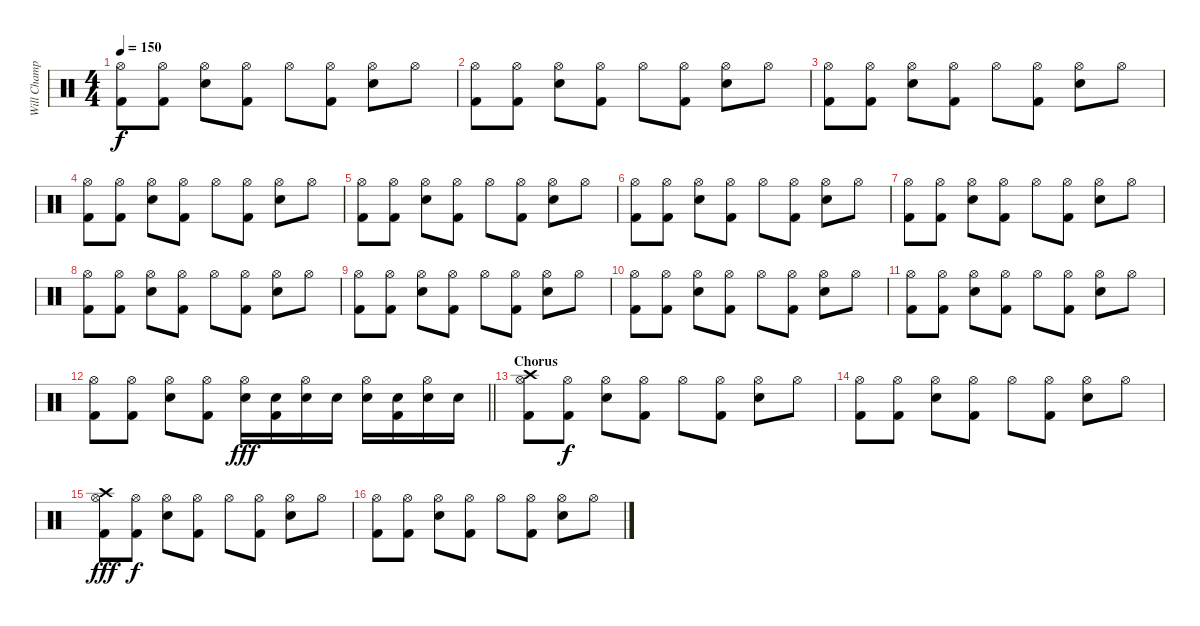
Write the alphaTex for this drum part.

\track ("Will Champion" "Will Champ") {instrument percussion}
\staff {score}
\articulation defaults
\ts (4 4)
\tempo 150
\clef neutral
\ks c
("Kick (hit) 2" "Hi-Hat (open)").8{dy f} ("Kick (hit) 2" "Hi-Hat (open)").8 ("Electric Snare (hit)" "Hi-Hat (open)").8 ("Kick (hit) 2" "Hi-Hat (open)").8 "Hi-Hat (open)".8 ("Kick (hit) 2" "Hi-Hat (open)").8 ("Electric Snare (hit)" "Hi-Hat (open)").8 "Hi-Hat (open)".8 |
("Kick (hit) 2" "Hi-Hat (open)").8 ("Kick (hit) 2" "Hi-Hat (open)").8 ("Electric Snare (hit)" "Hi-Hat (open)").8 ("Kick (hit) 2" "Hi-Hat (open)").8 "Hi-Hat (open)".8 ("Kick (hit) 2" "Hi-Hat (open)").8 ("Electric Snare (hit)" "Hi-Hat (open)").8 "Hi-Hat (open)".8 |
("Kick (hit) 2" "Hi-Hat (open)").8 ("Kick (hit) 2" "Hi-Hat (open)").8 ("Electric Snare (hit)" "Hi-Hat (open)").8 ("Kick (hit) 2" "Hi-Hat (open)").8 "Hi-Hat (open)".8 ("Kick (hit) 2" "Hi-Hat (open)").8 ("Electric Snare (hit)" "Hi-Hat (open)").8 "Hi-Hat (open)".8 |
("Kick (hit) 2" "Hi-Hat (open)").8 ("Kick (hit) 2" "Hi-Hat (open)").8 ("Electric Snare (hit)" "Hi-Hat (open)").8 ("Kick (hit) 2" "Hi-Hat (open)").8 "Hi-Hat (open)".8 ("Kick (hit) 2" "Hi-Hat (open)").8 ("Electric Snare (hit)" "Hi-Hat (open)").8 "Hi-Hat (open)".8 |
("Kick (hit) 2" "Hi-Hat (open)").8 ("Kick (hit) 2" "Hi-Hat (open)").8 ("Electric Snare (hit)" "Hi-Hat (open)").8 ("Kick (hit) 2" "Hi-Hat (open)").8 "Hi-Hat (open)".8 ("Kick (hit) 2" "Hi-Hat (open)").8 ("Electric Snare (hit)" "Hi-Hat (open)").8 "Hi-Hat (open)".8 |
("Kick (hit) 2" "Hi-Hat (open)").8 ("Kick (hit) 2" "Hi-Hat (open)").8 ("Electric Snare (hit)" "Hi-Hat (open)").8 ("Kick (hit) 2" "Hi-Hat (open)").8 "Hi-Hat (open)".8 ("Kick (hit) 2" "Hi-Hat (open)").8 ("Electric Snare (hit)" "Hi-Hat (open)").8 "Hi-Hat (open)".8 |
("Kick (hit) 2" "Hi-Hat (open)").8 ("Kick (hit) 2" "Hi-Hat (open)").8 ("Electric Snare (hit)" "Hi-Hat (open)").8 ("Kick (hit) 2" "Hi-Hat (open)").8 "Hi-Hat (open)".8 ("Kick (hit) 2" "Hi-Hat (open)").8 ("Electric Snare (hit)" "Hi-Hat (open)").8 "Hi-Hat (open)".8 |
("Kick (hit) 2" "Hi-Hat (open)").8 ("Kick (hit) 2" "Hi-Hat (open)").8 ("Electric Snare (hit)" "Hi-Hat (open)").8 ("Kick (hit) 2" "Hi-Hat (open)").8 "Hi-Hat (open)".8 ("Kick (hit) 2" "Hi-Hat (open)").8 ("Electric Snare (hit)" "Hi-Hat (open)").8 "Hi-Hat (open)".8 |
("Kick (hit) 2" "Hi-Hat (open)").8 ("Kick (hit) 2" "Hi-Hat (open)").8 ("Electric Snare (hit)" "Hi-Hat (open)").8 ("Kick (hit) 2" "Hi-Hat (open)").8 "Hi-Hat (open)".8 ("Kick (hit) 2" "Hi-Hat (open)").8 ("Electric Snare (hit)" "Hi-Hat (open)").8 "Hi-Hat (open)".8 |
("Kick (hit) 2" "Hi-Hat (open)").8 ("Kick (hit) 2" "Hi-Hat (open)").8 ("Electric Snare (hit)" "Hi-Hat (open)").8 ("Kick (hit) 2" "Hi-Hat (open)").8 "Hi-Hat (open)".8 ("Kick (hit) 2" "Hi-Hat (open)").8 ("Electric Snare (hit)" "Hi-Hat (open)").8 "Hi-Hat (open)".8 |
("Kick (hit) 2" "Hi-Hat (open)").8 ("Kick (hit) 2" "Hi-Hat (open)").8 ("Electric Snare (hit)" "Hi-Hat (open)").8 ("Kick (hit) 2" "Hi-Hat (open)").8 "Hi-Hat (open)".8 ("Kick (hit) 2" "Hi-Hat (open)").8 ("Electric Snare (hit)" "Hi-Hat (open)").8 "Hi-Hat (open)".8 |
\barLineRight lightlight
("Kick (hit) 2" "Hi-Hat (open)").8 ("Kick (hit) 2" "Hi-Hat (open)").8 ("Electric Snare (hit)" "Hi-Hat (open)").8 ("Kick (hit) 2" "Hi-Hat (open)").8 ("Hi-Hat (open)" "Electric Snare (hit)").16{dy fff} ("Kick (hit) 2" "Electric Snare (hit)").16 ("Hi-Hat (open)" "Electric Snare (hit)").16 "Electric Snare (hit)".16 ("Hi-Hat (open)" "Electric Snare (hit)").16 ("Kick (hit) 2" "Electric Snare (hit)").16 ("Hi-Hat (open)" "Electric Snare (hit)").16 "Electric Snare (hit)".16 |
\section ("" "Chorus")
("Kick (hit) 2" "Hi-Hat (open)" "Crash high (hit)").8 ("Kick (hit) 2" "Hi-Hat (open)").8{dy f} ("Electric Snare (hit)" "Hi-Hat (open)").8 ("Kick (hit) 2" "Hi-Hat (open)").8 "Hi-Hat (open)".8 ("Kick (hit) 2" "Hi-Hat (open)").8 ("Electric Snare (hit)" "Hi-Hat (open)").8 "Hi-Hat (open)".8 |
("Kick (hit) 2" "Hi-Hat (open)").8 ("Kick (hit) 2" "Hi-Hat (open)").8 ("Electric Snare (hit)" "Hi-Hat (open)").8 ("Kick (hit) 2" "Hi-Hat (open)").8 "Hi-Hat (open)".8 ("Kick (hit) 2" "Hi-Hat (open)").8 ("Electric Snare (hit)" "Hi-Hat (open)").8 "Hi-Hat (open)".8 |
("Kick (hit) 2" "Hi-Hat (open)" "Crash high (hit)").8{dy fff} ("Kick (hit) 2" "Hi-Hat (open)").8{dy f} ("Electric Snare (hit)" "Hi-Hat (open)").8 ("Kick (hit) 2" "Hi-Hat (open)").8 "Hi-Hat (open)".8 ("Kick (hit) 2" "Hi-Hat (open)").8 ("Electric Snare (hit)" "Hi-Hat (open)").8 "Hi-Hat (open)".8 |
("Kick (hit) 2" "Hi-Hat (open)").8 ("Kick (hit) 2" "Hi-Hat (open)").8 ("Electric Snare (hit)" "Hi-Hat (open)").8 ("Kick (hit) 2" "Hi-Hat (open)").8 "Hi-Hat (open)".8 ("Kick (hit) 2" "Hi-Hat (open)").8 ("Electric Snare (hit)" "Hi-Hat (open)").8 "Hi-Hat (open)".8
